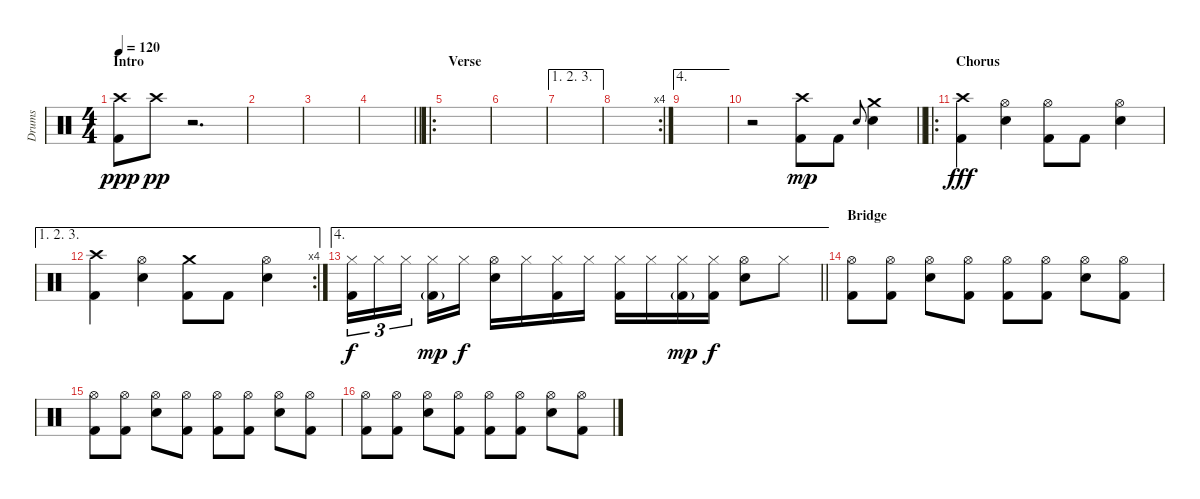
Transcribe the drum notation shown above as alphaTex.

\track ("Drums" "Drums") {instrument percussion}
\staff {score}
\articulation defaults
\ts (4 4)
\section ("" "Intro")
\tempo 120
\clef neutral
\ks c
("Crash high (hit)" "Kick (hit) 2").8{dy ppp} "Crash high (hit)".8{dy pp} r.2{d} |
|
|
\barLineRight lightlight
|
\ro
\section ("" "Verse")
|
|
\ae (1 2 3)
|
\rc 4
|
\ae 4
|
\barLineRight lightlight
r.2 ("Crash high (hit)" "Kick (hit) 2").8{dy mp} "Kick (hit) 2".8 "Electric Snare (hit)".8{gr onbeat} ("Crash medium (hit)" "Electric Snare (hit)").4 |
\ro
\section ("" "Chorus")
("Crash high (hit)" "Kick (hit) 2").4{dy fff} ("Hi-Hat (open)" "Electric Snare (hit)").4 ("Hi-Hat (open)" "Kick (hit) 2").8 "Kick (hit) 2".8 ("Hi-Hat (open)" "Electric Snare (hit)").4 |
\ae (1 2 3)
\rc 4
("Crash high (hit)" "Kick (hit) 2").4 ("Hi-Hat (open)" "Electric Snare (hit)").4 ("Crash medium (hit)" "Kick (hit) 2").8 "Kick (hit) 2".8 ("Hi-Hat (open)" "Electric Snare (hit)").4 |
\ae 4
\barLineRight lightlight
("Hi-Hat (closed)" "Kick (hit) 2").16{tu (3 2) dy f} "Hi-Hat (closed)".16{tu (3 2)} "Hi-Hat (closed)".16{tu (3 2) beam splitsecondary} ("Hi-Hat (closed)" "Kick (hit) 2"{g}).16{dy mp} "Hi-Hat (closed)".16{dy f} ("Hi-Hat (open)" "Electric Snare (hit)").16 "Hi-Hat (closed)".16 ("Hi-Hat (closed)" "Kick (hit) 2").16 "Hi-Hat (closed)".16 ("Hi-Hat (closed)" "Kick (hit) 2").16 "Hi-Hat (closed)".16 ("Hi-Hat (closed)" "Kick (hit) 2"{g}).16{dy mp} ("Hi-Hat (closed)" "Kick (hit) 2").16{dy f} ("Hi-Hat (open)" "Electric Snare (hit)").8 "Hi-Hat (closed)".8 |
\section ("" "Bridge")
("Hi-Hat (open)" "Kick (hit) 2").8 ("Hi-Hat (open)" "Kick (hit) 2").8 ("Hi-Hat (open)" "Electric Snare (hit)").8 ("Hi-Hat (open)" "Kick (hit) 2").8 ("Hi-Hat (open)" "Kick (hit) 2").8 ("Hi-Hat (open)" "Kick (hit) 2").8 ("Hi-Hat (open)" "Electric Snare (hit)").8 ("Hi-Hat (open)" "Kick (hit) 2").8 |
("Hi-Hat (open)" "Kick (hit) 2").8 ("Hi-Hat (open)" "Kick (hit) 2").8 ("Hi-Hat (open)" "Electric Snare (hit)").8 ("Hi-Hat (open)" "Kick (hit) 2").8 ("Hi-Hat (open)" "Kick (hit) 2").8 ("Hi-Hat (open)" "Kick (hit) 2").8 ("Hi-Hat (open)" "Electric Snare (hit)").8 ("Hi-Hat (open)" "Kick (hit) 2").8 |
("Hi-Hat (open)" "Kick (hit) 2").8 ("Hi-Hat (open)" "Kick (hit) 2").8 ("Hi-Hat (open)" "Electric Snare (hit)").8 ("Hi-Hat (open)" "Kick (hit) 2").8 ("Hi-Hat (open)" "Kick (hit) 2").8 ("Hi-Hat (open)" "Kick (hit) 2").8 ("Hi-Hat (open)" "Electric Snare (hit)").8 ("Hi-Hat (open)" "Kick (hit) 2").8
